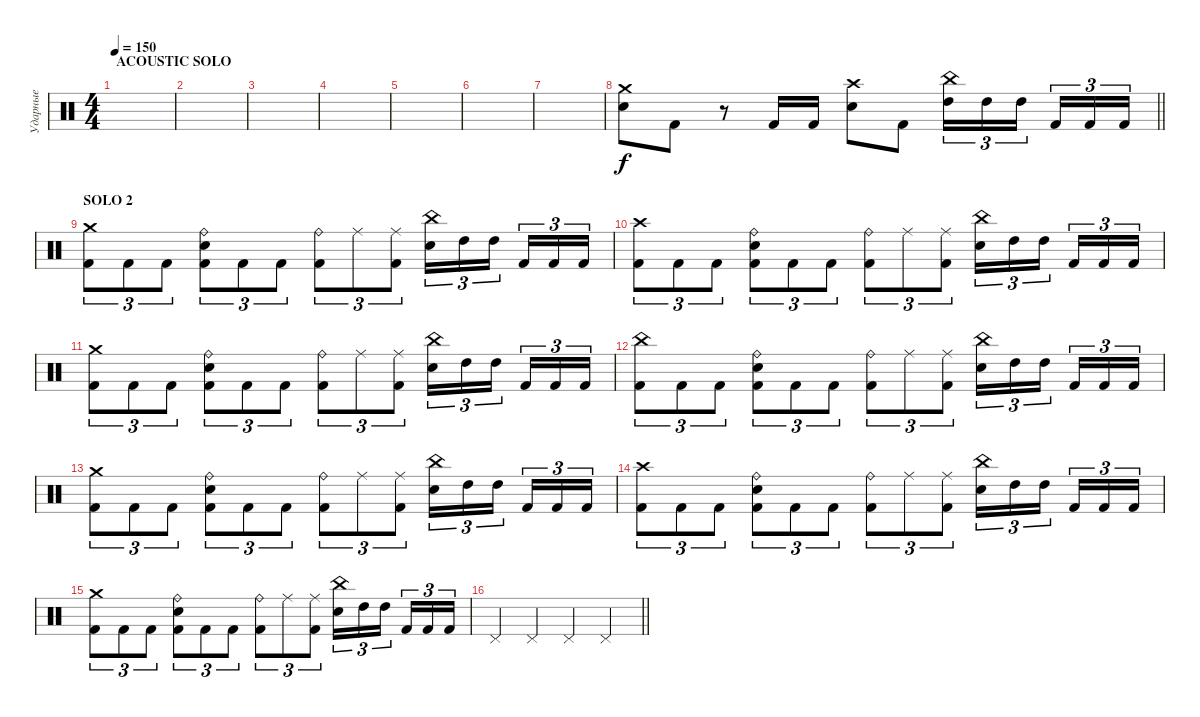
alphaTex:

\track ("Ударные" "Ударные") {instrument percussion}
\staff {score}
\articulation defaults
\ts (4 4)
\section ("" "ACOUSTIC SOLO")
\tempo 150
\clef neutral
\ks c
|
|
|
|
|
|
|
\barLineRight lightlight
("Snare (hit) 2" "Crash medium (hit)").8 "Kick (hit) 2".8 r.8 "Kick (hit) 2".16 "Kick (hit) 2".16 ("Snare (hit) 2" "Crash high (hit)").8 "Kick (hit) 2".8 ("High Tom (hit)" "China (hit)").16{tu (3 2)} "High Tom (hit)".16{tu (3 2)} "High Tom (hit)".16{tu (3 2)} "Kick (hit) 2".16{tu (3 2)} "Kick (hit) 2".16{tu (3 2)} "Kick (hit) 2".16{tu (3 2)} |
\section ("" "SOLO 2")
("Kick (hit) 2" "Crash medium (hit)").8{tu (3 2)} "Kick (hit) 2".8{tu (3 2)} "Kick (hit) 2".8{tu (3 2)} ("Kick (hit) 2" "Snare (hit) 2" "Ride (bell)").8{tu (3 2)} "Kick (hit) 2".8{tu (3 2)} "Kick (hit) 2".8{tu (3 2)} ("Kick (hit) 2" "Ride (bell)").8{tu (3 2)} "Ride (middle)".8{tu (3 2)} ("Kick (hit) 2" "Ride (middle)").8{tu (3 2)} ("Snare (hit) 2" "China (hit)").16{tu (3 2)} "High Tom (hit)".16{tu (3 2)} "High Tom (hit)".16{tu (3 2)} "Kick (hit) 2".16{tu (3 2)} "Kick (hit) 2".16{tu (3 2)} "Kick (hit) 2".16{tu (3 2)} |
("Kick (hit) 2" "Crash high (hit)").8{tu (3 2)} "Kick (hit) 2".8{tu (3 2)} "Kick (hit) 2".8{tu (3 2)} ("Kick (hit) 2" "Snare (hit) 2" "Ride (bell)").8{tu (3 2)} "Kick (hit) 2".8{tu (3 2)} "Kick (hit) 2".8{tu (3 2)} ("Kick (hit) 2" "Ride (bell)").8{tu (3 2)} "Ride (middle)".8{tu (3 2)} ("Kick (hit) 2" "Ride (middle)").8{tu (3 2)} ("Snare (hit) 2" "China (hit)").16{tu (3 2)} "High Tom (hit)".16{tu (3 2)} "High Tom (hit)".16{tu (3 2)} "Kick (hit) 2".16{tu (3 2)} "Kick (hit) 2".16{tu (3 2)} "Kick (hit) 2".16{tu (3 2)} |
("Kick (hit) 2" "Crash medium (hit)").8{tu (3 2)} "Kick (hit) 2".8{tu (3 2)} "Kick (hit) 2".8{tu (3 2)} ("Kick (hit) 2" "Snare (hit) 2" "Ride (bell)").8{tu (3 2)} "Kick (hit) 2".8{tu (3 2)} "Kick (hit) 2".8{tu (3 2)} ("Kick (hit) 2" "Ride (bell)").8{tu (3 2)} "Ride (middle)".8{tu (3 2)} ("Kick (hit) 2" "Ride (middle)").8{tu (3 2)} ("Snare (hit) 2" "China (hit)").16{tu (3 2)} "High Tom (hit)".16{tu (3 2)} "High Tom (hit)".16{tu (3 2)} "Kick (hit) 2".16{tu (3 2)} "Kick (hit) 2".16{tu (3 2)} "Kick (hit) 2".16{tu (3 2)} |
("Kick (hit) 2" "China (hit)").8{tu (3 2)} "Kick (hit) 2".8{tu (3 2)} "Kick (hit) 2".8{tu (3 2)} ("Kick (hit) 2" "Snare (hit) 2" "Ride (bell)").8{tu (3 2)} "Kick (hit) 2".8{tu (3 2)} "Kick (hit) 2".8{tu (3 2)} ("Kick (hit) 2" "Ride (bell)").8{tu (3 2)} "Ride (middle)".8{tu (3 2)} ("Kick (hit) 2" "Ride (middle)").8{tu (3 2)} ("Snare (hit) 2" "China (hit)").16{tu (3 2)} "High Tom (hit)".16{tu (3 2)} "High Tom (hit)".16{tu (3 2)} "Kick (hit) 2".16{tu (3 2)} "Kick (hit) 2".16{tu (3 2)} "Kick (hit) 2".16{tu (3 2)} |
("Kick (hit) 2" "Crash medium (hit)").8{tu (3 2)} "Kick (hit) 2".8{tu (3 2)} "Kick (hit) 2".8{tu (3 2)} ("Kick (hit) 2" "Snare (hit) 2" "Ride (bell)").8{tu (3 2)} "Kick (hit) 2".8{tu (3 2)} "Kick (hit) 2".8{tu (3 2)} ("Kick (hit) 2" "Ride (bell)").8{tu (3 2)} "Ride (middle)".8{tu (3 2)} ("Kick (hit) 2" "Ride (middle)").8{tu (3 2)} ("Snare (hit) 2" "China (hit)").16{tu (3 2)} "High Tom (hit)".16{tu (3 2)} "High Tom (hit)".16{tu (3 2)} "Kick (hit) 2".16{tu (3 2)} "Kick (hit) 2".16{tu (3 2)} "Kick (hit) 2".16{tu (3 2)} |
("Kick (hit) 2" "Crash high (hit)").8{tu (3 2)} "Kick (hit) 2".8{tu (3 2)} "Kick (hit) 2".8{tu (3 2)} ("Kick (hit) 2" "Snare (hit) 2" "Ride (bell)").8{tu (3 2)} "Kick (hit) 2".8{tu (3 2)} "Kick (hit) 2".8{tu (3 2)} ("Kick (hit) 2" "Ride (bell)").8{tu (3 2)} "Ride (middle)".8{tu (3 2)} ("Kick (hit) 2" "Ride (middle)").8{tu (3 2)} ("Snare (hit) 2" "China (hit)").16{tu (3 2)} "High Tom (hit)".16{tu (3 2)} "High Tom (hit)".16{tu (3 2)} "Kick (hit) 2".16{tu (3 2)} "Kick (hit) 2".16{tu (3 2)} "Kick (hit) 2".16{tu (3 2)} |
("Kick (hit) 2" "Crash medium (hit)").8{tu (3 2)} "Kick (hit) 2".8{tu (3 2)} "Kick (hit) 2".8{tu (3 2)} ("Kick (hit) 2" "Snare (hit) 2" "Ride (bell)").8{tu (3 2)} "Kick (hit) 2".8{tu (3 2)} "Kick (hit) 2".8{tu (3 2)} ("Kick (hit) 2" "Ride (bell)").8{tu (3 2)} "Ride (middle)".8{tu (3 2)} ("Kick (hit) 2" "Ride (middle)").8{tu (3 2)} ("Snare (hit) 2" "China (hit)").16{tu (3 2)} "High Tom (hit)".16{tu (3 2)} "High Tom (hit)".16{tu (3 2)} "Kick (hit) 2".16{tu (3 2)} "Kick (hit) 2".16{tu (3 2)} "Kick (hit) 2".16{tu (3 2)} |
\barLineRight lightlight "Pedal Hi-Hat (hit)".4 "Pedal Hi-Hat (hit)".4 "Pedal Hi-Hat (hit)".4 "Pedal Hi-Hat (hit)".4
